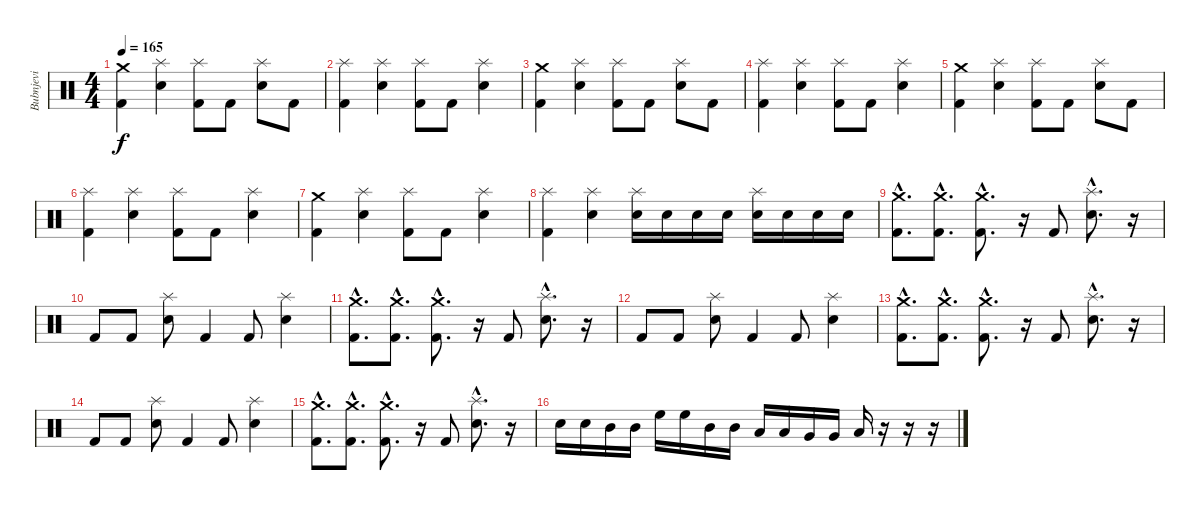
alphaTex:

\track ("Bubnjevi" "Bubnjevi") {instrument percussion}
\staff {score}
\articulation defaults
\ts (4 4)
\tempo 165
\clef neutral
\ks c
("Crash medium (hit)" "Kick (hit) 2").4{dy f} ("Splash (hit)" "Electric Snare (hit)").4 ("Splash (hit)" "Kick (hit) 2").8 "Kick (hit) 2".8 ("Splash (hit)" "Electric Snare (hit)").8 "Kick (hit) 2".8 |
("Splash (hit)" "Kick (hit) 2").4 ("Splash (hit)" "Electric Snare (hit)").4 ("Splash (hit)" "Kick (hit) 2").8 "Kick (hit) 2".8 ("Splash (hit)" "Electric Snare (hit)").4 |
("Crash medium (hit)" "Kick (hit) 2").4 ("Splash (hit)" "Electric Snare (hit)").4 ("Splash (hit)" "Kick (hit) 2").8 "Kick (hit) 2".8 ("Splash (hit)" "Electric Snare (hit)").8 "Kick (hit) 2".8 |
("Splash (hit)" "Kick (hit) 2").4 ("Splash (hit)" "Electric Snare (hit)").4 ("Splash (hit)" "Kick (hit) 2").8 "Kick (hit) 2".8 ("Splash (hit)" "Electric Snare (hit)").4 |
("Crash medium (hit)" "Kick (hit) 2").4 ("Splash (hit)" "Electric Snare (hit)").4 ("Splash (hit)" "Kick (hit) 2").8 "Kick (hit) 2".8 ("Splash (hit)" "Electric Snare (hit)").8 "Kick (hit) 2".8 |
("Splash (hit)" "Kick (hit) 2").4 ("Splash (hit)" "Electric Snare (hit)").4 ("Splash (hit)" "Kick (hit) 2").8 "Kick (hit) 2".8 ("Splash (hit)" "Electric Snare (hit)").4 |
("Crash medium (hit)" "Kick (hit) 2").4 ("Splash (hit)" "Electric Snare (hit)").4 ("Splash (hit)" "Kick (hit) 2").8 "Kick (hit) 2".8 ("Splash (hit)" "Electric Snare (hit)").4 |
("Splash (hit)" "Kick (hit) 2").4 ("Splash (hit)" "Electric Snare (hit)").4 ("Splash (hit)" "Electric Snare (hit)").16 "Electric Snare (hit)".16 "Electric Snare (hit)".16 "Electric Snare (hit)".16 ("Splash (hit)" "Electric Snare (hit)").16 "Electric Snare (hit)".16 "Electric Snare (hit)".16 "Electric Snare (hit)".16 |
("Crash medium (hit)"{hac} "Kick (hit) 2"{hac}).8{d} ("Crash medium (hit)"{hac} "Kick (hit) 2"{hac}).8{d} ("Crash medium (hit)"{hac} "Kick (hit) 2"{hac}).8{d} r.16 "Kick (hit) 2".8 ("Splash (hit)"{hac} "Electric Snare (hit)"{hac}).8{d} r.16 |
"Kick (hit) 2".8 "Kick (hit) 2".8 ("Splash (hit)" "Electric Snare (hit)").8 "Kick (hit) 2".4 "Kick (hit) 2".8 ("Splash (hit)" "Electric Snare (hit)").4 |
("Crash medium (hit)"{hac} "Kick (hit) 2"{hac}).8{d} ("Crash medium (hit)"{hac} "Kick (hit) 2"{hac}).8{d} ("Crash medium (hit)"{hac} "Kick (hit) 2"{hac}).8{d} r.16 "Kick (hit) 2".8 ("Splash (hit)"{hac} "Electric Snare (hit)"{hac}).8{d} r.16 |
"Kick (hit) 2".8 "Kick (hit) 2".8 ("Splash (hit)" "Electric Snare (hit)").8 "Kick (hit) 2".4 "Kick (hit) 2".8 ("Splash (hit)" "Electric Snare (hit)").4 |
("Crash medium (hit)"{hac} "Kick (hit) 2"{hac}).8{d} ("Crash medium (hit)"{hac} "Kick (hit) 2"{hac}).8{d} ("Crash medium (hit)"{hac} "Kick (hit) 2"{hac}).8{d} r.16 "Kick (hit) 2".8 ("Splash (hit)"{hac} "Electric Snare (hit)"{hac}).8{d} r.16 |
"Kick (hit) 2".8 "Kick (hit) 2".8 ("Splash (hit)" "Electric Snare (hit)").8 "Kick (hit) 2".4 "Kick (hit) 2".8 ("Splash (hit)" "Electric Snare (hit)").4 |
("Crash medium (hit)"{hac} "Kick (hit) 2"{hac}).8{d} ("Crash medium (hit)"{hac} "Kick (hit) 2"{hac}).8{d} ("Crash medium (hit)"{hac} "Kick (hit) 2"{hac}).8{d} r.16 "Kick (hit) 2".8 ("Splash (hit)"{hac} "Electric Snare (hit)"{hac}).8{d} r.16 |
"Electric Snare (hit)".16 "Electric Snare (hit)".16 "Mid Tom (hit)".16 "Mid Tom (hit)".16 "High Floor Tom (hit)".16 "High Floor Tom (hit)".16 "Mid Tom (hit)".16 "Mid Tom (hit)".16 "Low Tom (hit)".16 "Low Tom (hit)".16 "Very Low Tom (hit)".16 "Very Low Tom (hit)".16 "Low Floor Tom (hit)".16 r.16 r.16 r.16
